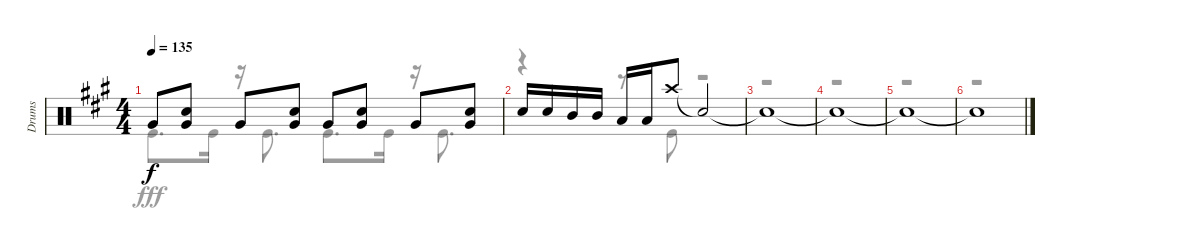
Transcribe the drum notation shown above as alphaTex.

\track ("Drums" "Drums") {instrument percussion}
\staff {score}
\articulation defaults
\voice
\ts (4 4)
\tempo 135
\clef neutral
\ks a "Very Low Tom (hit)".8{dy f}
("Snare (hit) 2" "Very Low Tom (hit)").8 "Very Low Tom (hit)".8 ("Snare (hit) 2" "Very Low Tom (hit)").8 "Very Low Tom (hit)".8 ("Snare (hit) 2" "Very Low Tom (hit)").8 "Very Low Tom (hit)".8 ("Snare (hit) 2" "Very Low Tom (hit)").8 |
"Snare (hit) 2".16 "Snare (hit) 2".16 "Mid Tom (hit)".16 "Mid Tom (hit)".16 "Low Tom (hit)".16 "Low Tom (hit)".16 "Crash high (hit)".8 "Snare (hit)"{t}.2 |
"Snare (hit)"{t}.1 |
"Snare (hit)"{t}.1 |
"Snare (hit)"{t}.1 |
"Snare (hit)"{t}.1
\voice
\clef neutral
\ottava regular
\simile none
\ks a "Kick (hit)".8{d dy fff} "Kick (hit)".16
r.16 "Kick (hit)".8{d} "Kick (hit)".8{d} "Kick (hit)".16 r.16 "Kick (hit)".8{d} |
r.4 r.8 "Kick (hit)".8 r.2 |
r.1 |
r.1 |
r.1 |
r.1
